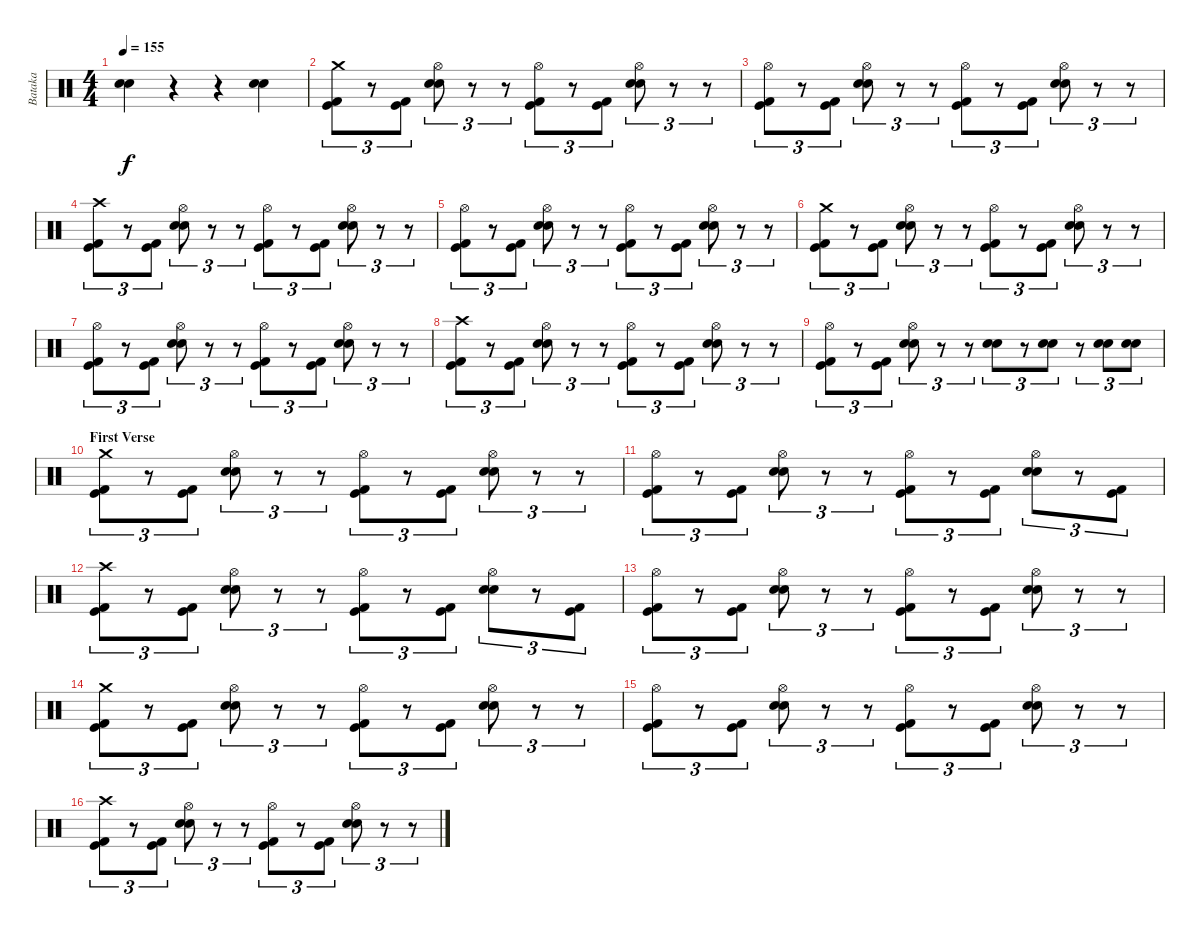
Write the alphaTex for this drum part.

\track ("Bataka" "Bataka") {instrument percussion}
\staff {score}
\articulation defaults
\ts (4 4)
\tempo 155
\clef neutral
\ks c
("Snare (hit) 2" "Snare (hit) 2").4{dy f} r.4 r.4 ("Snare (hit) 2" "Snare (hit) 2").4 |
("Crash medium (hit)" "Kick (hit) 2" "Kick (hit)").8{tu (3 2)} r.8{tu (3 2)} ("Kick (hit) 2" "Kick (hit)").8{tu (3 2)} ("Hi-Hat (open)" "Snare (hit) 2" "Snare (hit) 2").8{tu (3 2)} r.8{tu (3 2)} r.8{tu (3 2)} ("Hi-Hat (open)" "Kick (hit) 2" "Kick (hit)").8{tu (3 2)} r.8{tu (3 2)} ("Kick (hit) 2" "Kick (hit)").8{tu (3 2)} ("Hi-Hat (open)" "Snare (hit) 2" "Snare (hit) 2").8{tu (3 2)} r.8{tu (3 2)} r.8{tu (3 2)} |
("Hi-Hat (open)" "Kick (hit) 2" "Kick (hit)").8{tu (3 2)} r.8{tu (3 2)} ("Kick (hit) 2" "Kick (hit)").8{tu (3 2)} ("Hi-Hat (open)" "Snare (hit) 2" "Snare (hit) 2").8{tu (3 2)} r.8{tu (3 2)} r.8{tu (3 2)} ("Hi-Hat (open)" "Kick (hit) 2" "Kick (hit)").8{tu (3 2)} r.8{tu (3 2)} ("Kick (hit) 2" "Kick (hit)").8{tu (3 2)} ("Hi-Hat (open)" "Snare (hit) 2" "Snare (hit) 2").8{tu (3 2)} r.8{tu (3 2)} r.8{tu (3 2)} |
("Crash high (hit)" "Kick (hit) 2" "Kick (hit)").8{tu (3 2)} r.8{tu (3 2)} ("Kick (hit) 2" "Kick (hit)").8{tu (3 2)} ("Hi-Hat (open)" "Snare (hit) 2" "Snare (hit) 2").8{tu (3 2)} r.8{tu (3 2)} r.8{tu (3 2)} ("Hi-Hat (open)" "Kick (hit) 2" "Kick (hit)").8{tu (3 2)} r.8{tu (3 2)} ("Kick (hit) 2" "Kick (hit)").8{tu (3 2)} ("Hi-Hat (open)" "Snare (hit) 2" "Snare (hit) 2").8{tu (3 2)} r.8{tu (3 2)} r.8{tu (3 2)} |
("Hi-Hat (open)" "Kick (hit) 2" "Kick (hit)").8{tu (3 2)} r.8{tu (3 2)} ("Kick (hit) 2" "Kick (hit)").8{tu (3 2)} ("Hi-Hat (open)" "Snare (hit) 2" "Snare (hit) 2").8{tu (3 2)} r.8{tu (3 2)} r.8{tu (3 2)} ("Hi-Hat (open)" "Kick (hit) 2" "Kick (hit)").8{tu (3 2)} r.8{tu (3 2)} ("Kick (hit) 2" "Kick (hit)").8{tu (3 2)} ("Hi-Hat (open)" "Snare (hit) 2" "Snare (hit) 2").8{tu (3 2)} r.8{tu (3 2)} r.8{tu (3 2)} |
("Crash medium (hit)" "Kick (hit) 2" "Kick (hit)").8{tu (3 2)} r.8{tu (3 2)} ("Kick (hit) 2" "Kick (hit)").8{tu (3 2)} ("Hi-Hat (open)" "Snare (hit) 2" "Snare (hit) 2").8{tu (3 2)} r.8{tu (3 2)} r.8{tu (3 2)} ("Hi-Hat (open)" "Kick (hit) 2" "Kick (hit)").8{tu (3 2)} r.8{tu (3 2)} ("Kick (hit) 2" "Kick (hit)").8{tu (3 2)} ("Hi-Hat (open)" "Snare (hit) 2" "Snare (hit) 2").8{tu (3 2)} r.8{tu (3 2)} r.8{tu (3 2)} |
("Hi-Hat (open)" "Kick (hit) 2" "Kick (hit)").8{tu (3 2)} r.8{tu (3 2)} ("Kick (hit) 2" "Kick (hit)").8{tu (3 2)} ("Hi-Hat (open)" "Snare (hit) 2" "Snare (hit) 2").8{tu (3 2)} r.8{tu (3 2)} r.8{tu (3 2)} ("Hi-Hat (open)" "Kick (hit) 2" "Kick (hit)").8{tu (3 2)} r.8{tu (3 2)} ("Kick (hit) 2" "Kick (hit)").8{tu (3 2)} ("Hi-Hat (open)" "Snare (hit) 2" "Snare (hit) 2").8{tu (3 2)} r.8{tu (3 2)} r.8{tu (3 2)} |
("Crash high (hit)" "Kick (hit) 2" "Kick (hit)").8{tu (3 2)} r.8{tu (3 2)} ("Kick (hit) 2" "Kick (hit)").8{tu (3 2)} ("Hi-Hat (open)" "Snare (hit) 2" "Snare (hit) 2").8{tu (3 2)} r.8{tu (3 2)} r.8{tu (3 2)} ("Hi-Hat (open)" "Kick (hit) 2" "Kick (hit)").8{tu (3 2)} r.8{tu (3 2)} ("Kick (hit) 2" "Kick (hit)").8{tu (3 2)} ("Hi-Hat (open)" "Snare (hit) 2" "Snare (hit) 2").8{tu (3 2)} r.8{tu (3 2)} r.8{tu (3 2)} |
("Hi-Hat (open)" "Kick (hit) 2" "Kick (hit)").8{tu (3 2)} r.8{tu (3 2)} ("Kick (hit) 2" "Kick (hit)").8{tu (3 2)} ("Hi-Hat (open)" "Snare (hit) 2" "Snare (hit) 2").8{tu (3 2)} r.8{tu (3 2)} r.8{tu (3 2)} ("Snare (hit) 2" "Snare (hit) 2").8{tu (3 2)} r.8{tu (3 2)} ("Snare (hit) 2" "Snare (hit) 2").8{tu (3 2)} r.8{tu (3 2)} ("Snare (hit) 2" "Snare (hit) 2").8{tu (3 2)} ("Snare (hit) 2" "Snare (hit) 2").8{tu (3 2)} |
\section ("" "First Verse")
("Crash medium (hit)" "Kick (hit) 2" "Kick (hit)").8{tu (3 2)} r.8{tu (3 2)} ("Kick (hit) 2" "Kick (hit)").8{tu (3 2)} ("Hi-Hat (open)" "Snare (hit) 2" "Snare (hit) 2").8{tu (3 2)} r.8{tu (3 2)} r.8{tu (3 2)} ("Hi-Hat (open)" "Kick (hit) 2" "Kick (hit)").8{tu (3 2)} r.8{tu (3 2)} ("Kick (hit) 2" "Kick (hit)").8{tu (3 2)} ("Hi-Hat (open)" "Snare (hit) 2" "Snare (hit) 2").8{tu (3 2)} r.8{tu (3 2)} r.8{tu (3 2)} |
("Hi-Hat (open)" "Kick (hit) 2" "Kick (hit)").8{tu (3 2)} r.8{tu (3 2)} ("Kick (hit) 2" "Kick (hit)").8{tu (3 2)} ("Hi-Hat (open)" "Snare (hit) 2" "Snare (hit) 2").8{tu (3 2)} r.8{tu (3 2)} r.8{tu (3 2)} ("Hi-Hat (open)" "Kick (hit) 2" "Kick (hit)").8{tu (3 2)} r.8{tu (3 2)} ("Kick (hit) 2" "Kick (hit)").8{tu (3 2)} ("Hi-Hat (open)" "Snare (hit) 2" "Snare (hit) 2").8{tu (3 2)} r.8{tu (3 2)} ("Kick (hit) 2" "Kick (hit)").8{tu (3 2)} |
("Crash high (hit)" "Kick (hit) 2" "Kick (hit)").8{tu (3 2)} r.8{tu (3 2)} ("Kick (hit) 2" "Kick (hit)").8{tu (3 2)} ("Hi-Hat (open)" "Snare (hit) 2" "Snare (hit) 2").8{tu (3 2)} r.8{tu (3 2)} r.8{tu (3 2)} ("Hi-Hat (open)" "Kick (hit) 2" "Kick (hit)").8{tu (3 2)} r.8{tu (3 2)} ("Kick (hit) 2" "Kick (hit)").8{tu (3 2)} ("Hi-Hat (open)" "Snare (hit) 2" "Snare (hit) 2").8{tu (3 2)} r.8{tu (3 2)} ("Kick (hit) 2" "Kick (hit)").8{tu (3 2)} |
("Hi-Hat (open)" "Kick (hit) 2" "Kick (hit)").8{tu (3 2)} r.8{tu (3 2)} ("Kick (hit) 2" "Kick (hit)").8{tu (3 2)} ("Hi-Hat (open)" "Snare (hit) 2" "Snare (hit) 2").8{tu (3 2)} r.8{tu (3 2)} r.8{tu (3 2)} ("Hi-Hat (open)" "Kick (hit) 2" "Kick (hit)").8{tu (3 2)} r.8{tu (3 2)} ("Kick (hit) 2" "Kick (hit)").8{tu (3 2)} ("Hi-Hat (open)" "Snare (hit) 2" "Snare (hit) 2").8{tu (3 2)} r.8{tu (3 2)} r.8{tu (3 2)} |
("Crash medium (hit)" "Kick (hit) 2" "Kick (hit)").8{tu (3 2)} r.8{tu (3 2)} ("Kick (hit) 2" "Kick (hit)").8{tu (3 2)} ("Hi-Hat (open)" "Snare (hit) 2" "Snare (hit) 2").8{tu (3 2)} r.8{tu (3 2)} r.8{tu (3 2)} ("Hi-Hat (open)" "Kick (hit) 2" "Kick (hit)").8{tu (3 2)} r.8{tu (3 2)} ("Kick (hit) 2" "Kick (hit)").8{tu (3 2)} ("Hi-Hat (open)" "Snare (hit) 2" "Snare (hit) 2").8{tu (3 2)} r.8{tu (3 2)} r.8{tu (3 2)} |
("Hi-Hat (open)" "Kick (hit) 2" "Kick (hit)").8{tu (3 2)} r.8{tu (3 2)} ("Kick (hit) 2" "Kick (hit)").8{tu (3 2)} ("Hi-Hat (open)" "Snare (hit) 2" "Snare (hit) 2").8{tu (3 2)} r.8{tu (3 2)} r.8{tu (3 2)} ("Hi-Hat (open)" "Kick (hit) 2" "Kick (hit)").8{tu (3 2)} r.8{tu (3 2)} ("Kick (hit) 2" "Kick (hit)").8{tu (3 2)} ("Hi-Hat (open)" "Snare (hit) 2" "Snare (hit) 2").8{tu (3 2)} r.8{tu (3 2)} r.8{tu (3 2)} |
("Crash high (hit)" "Kick (hit) 2" "Kick (hit)").8{tu (3 2)} r.8{tu (3 2)} ("Kick (hit) 2" "Kick (hit)").8{tu (3 2)} ("Hi-Hat (open)" "Snare (hit) 2" "Snare (hit) 2").8{tu (3 2)} r.8{tu (3 2)} r.8{tu (3 2)} ("Hi-Hat (open)" "Kick (hit) 2" "Kick (hit)").8{tu (3 2)} r.8{tu (3 2)} ("Kick (hit) 2" "Kick (hit)").8{tu (3 2)} ("Hi-Hat (open)" "Snare (hit) 2" "Snare (hit) 2").8{tu (3 2)} r.8{tu (3 2)} r.8{tu (3 2)}
